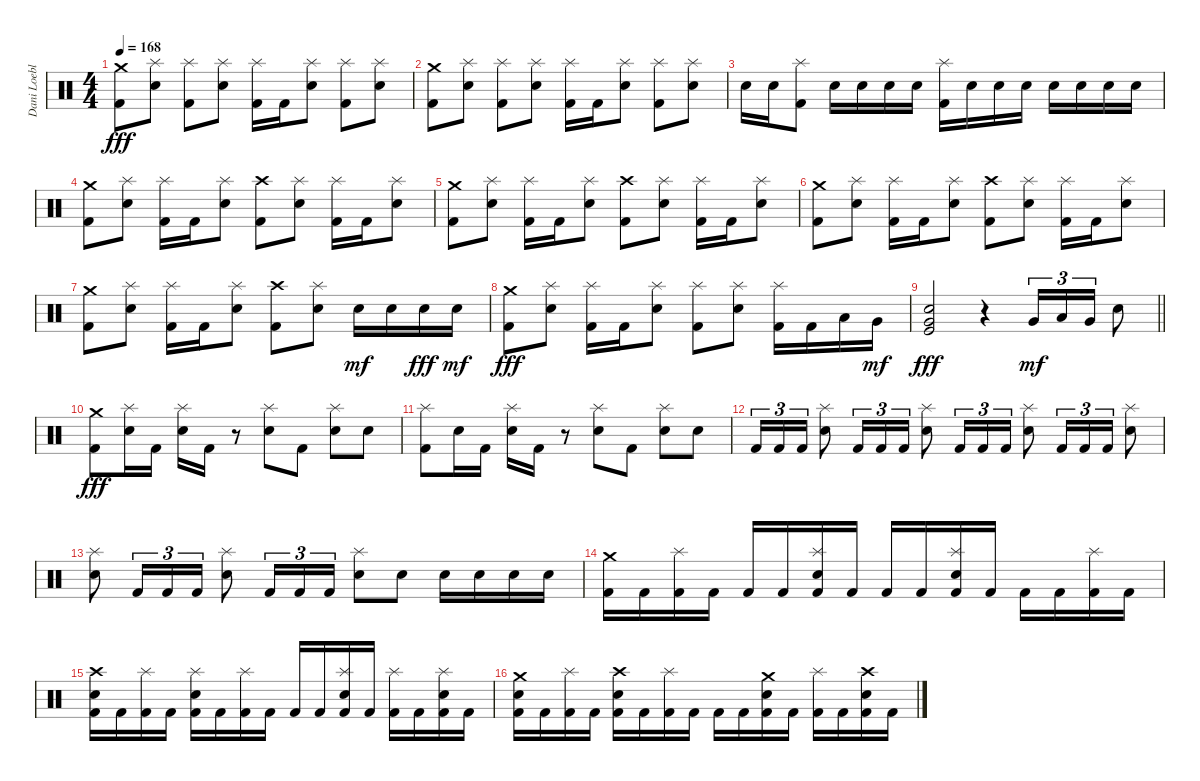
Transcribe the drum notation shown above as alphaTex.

\track ("Dani Loeble" "Dani Loebl") {instrument percussion}
\staff {score}
\articulation defaults
\ts (4 4)
\tempo 168
\clef neutral
\ks c
("Crash medium (hit)" "Kick (hit) 2").8{dy fff} ("Splash (hit)" "Electric Snare (hit)").8 ("Splash (hit)" "Kick (hit) 2").8 ("Splash (hit)" "Electric Snare (hit)").8 ("Splash (hit)" "Kick (hit) 2").16 "Kick (hit) 2".16 ("Splash (hit)" "Electric Snare (hit)").8 ("Splash (hit)" "Kick (hit) 2").8 ("Splash (hit)" "Electric Snare (hit)").8 |
("Crash medium (hit)" "Kick (hit) 2").8 ("Splash (hit)" "Electric Snare (hit)").8 ("Splash (hit)" "Kick (hit) 2").8 ("Splash (hit)" "Electric Snare (hit)").8 ("Splash (hit)" "Kick (hit) 2").16 "Kick (hit) 2".16 ("Splash (hit)" "Electric Snare (hit)").8 ("Splash (hit)" "Kick (hit) 2").8 ("Splash (hit)" "Electric Snare (hit)").8 |
"Electric Snare (hit)".16 "Electric Snare (hit)".16 ("Splash (hit)" "Kick (hit) 2").8 "Electric Snare (hit)".16 "Electric Snare (hit)".16 "Electric Snare (hit)".16 "Electric Snare (hit)".16 ("Splash (hit)" "Kick (hit) 2").16 "Electric Snare (hit)".16 "Electric Snare (hit)".16 "Electric Snare (hit)".16 "Electric Snare (hit)".16 "Electric Snare (hit)".16 "Electric Snare (hit)".16 "Electric Snare (hit)".16 |
("Crash medium (hit)" "Kick (hit) 2").8 ("Splash (hit)" "Electric Snare (hit)").8 ("Splash (hit)" "Kick (hit) 2").16 "Kick (hit) 2".16 ("Splash (hit)" "Electric Snare (hit)").8 ("Crash high (hit)" "Kick (hit) 2").8 ("Splash (hit)" "Electric Snare (hit)").8 ("Splash (hit)" "Kick (hit) 2").16 "Kick (hit) 2".16 ("Splash (hit)" "Electric Snare (hit)").8 |
("Crash medium (hit)" "Kick (hit) 2").8 ("Splash (hit)" "Electric Snare (hit)").8 ("Splash (hit)" "Kick (hit) 2").16 "Kick (hit) 2".16 ("Splash (hit)" "Electric Snare (hit)").8 ("Crash high (hit)" "Kick (hit) 2").8 ("Splash (hit)" "Electric Snare (hit)").8 ("Splash (hit)" "Kick (hit) 2").16 "Kick (hit) 2".16 ("Splash (hit)" "Electric Snare (hit)").8 |
("Crash medium (hit)" "Kick (hit) 2").8 ("Splash (hit)" "Electric Snare (hit)").8 ("Splash (hit)" "Kick (hit) 2").16 "Kick (hit) 2".16 ("Splash (hit)" "Electric Snare (hit)").8 ("Crash high (hit)" "Kick (hit) 2").8 ("Splash (hit)" "Electric Snare (hit)").8 ("Splash (hit)" "Kick (hit) 2").16 "Kick (hit) 2".16 ("Splash (hit)" "Electric Snare (hit)").8 |
("Crash medium (hit)" "Kick (hit) 2").8 ("Splash (hit)" "Electric Snare (hit)").8 ("Splash (hit)" "Kick (hit) 2").16 "Kick (hit) 2".16 ("Splash (hit)" "Electric Snare (hit)").8 ("Crash high (hit)" "Kick (hit) 2").8 ("Splash (hit)" "Electric Snare (hit)").8 "Electric Snare (hit)".16{dy mf} "Electric Snare (hit)".16 "Electric Snare (hit)".16{dy fff} "Electric Snare (hit)".16{dy mf} |
("Crash medium (hit)" "Kick (hit) 2").8{dy fff} ("Splash (hit)" "Electric Snare (hit)").8 ("Splash (hit)" "Kick (hit) 2").16 "Kick (hit) 2".16 ("Splash (hit)" "Electric Snare (hit)").8 ("Splash (hit)" "Kick (hit) 2").8 ("Splash (hit)" "Electric Snare (hit)").8 ("Splash (hit)" "Kick (hit) 2").16 "Kick (hit) 2".16 "Low Tom (hit)".16 "Very Low Tom (hit)".16{dy mf} |
\barLineRight lightlight
("Electric Snare (hit)" "Very Low Tom (hit)" "Kick (hit)").2{dy fff} r.4 "Very Low Tom (hit)".16{tu (3 2) dy mf} "Low Tom (hit)".16{tu (3 2)} "Very Low Tom (hit)".16{tu (3 2)} "Electric Snare (hit)".8 |
\section ("" "")
("Crash medium (hit)" "Kick (hit) 2").8{dy fff} ("Splash (hit)" "Electric Snare (hit)").16 "Kick (hit) 2".16 ("Splash (hit)" "Electric Snare (hit)").16 "Kick (hit) 2".16 r.8 ("Splash (hit)" "Electric Snare (hit)").8 "Kick (hit) 2".8 ("Splash (hit)" "Electric Snare (hit)").8 "Electric Snare (hit)".8 |
("Splash (hit)" "Kick (hit) 2").8 "Electric Snare (hit)".16 "Kick (hit) 2".16 ("Splash (hit)" "Electric Snare (hit)").16 "Kick (hit) 2".16 r.8 ("Splash (hit)" "Electric Snare (hit)").8 "Kick (hit) 2".8 ("Splash (hit)" "Electric Snare (hit)").8 "Electric Snare (hit)".8 |
"Kick (hit) 2".16{tu (3 2)} "Kick (hit) 2".16{tu (3 2)} "Kick (hit) 2".16{tu (3 2)} ("Splash (hit)" "Electric Snare (hit)").8 "Kick (hit) 2".16{tu (3 2)} "Kick (hit) 2".16{tu (3 2)} "Kick (hit) 2".16{tu (3 2)} ("Splash (hit)" "Electric Snare (hit)").8 "Kick (hit) 2".16{tu (3 2)} "Kick (hit) 2".16{tu (3 2)} "Kick (hit) 2".16{tu (3 2)} ("Splash (hit)" "Electric Snare (hit)").8 "Kick (hit) 2".16{tu (3 2)} "Kick (hit) 2".16{tu (3 2)} "Kick (hit) 2".16{tu (3 2)} ("Splash (hit)" "Electric Snare (hit)").8 |
("Splash (hit)" "Electric Snare (hit)").8 "Kick (hit) 2".16{tu (3 2)} "Kick (hit) 2".16{tu (3 2)} "Kick (hit) 2".16{tu (3 2)} ("Splash (hit)" "Electric Snare (hit)").8 "Kick (hit) 2".16{tu (3 2)} "Kick (hit) 2".16{tu (3 2)} "Kick (hit) 2".16{tu (3 2)} ("Splash (hit)" "Electric Snare (hit)").8 "Electric Snare (hit)".8 "Electric Snare (hit)".16 "Electric Snare (hit)".16 "Electric Snare (hit)".16 "Electric Snare (hit)".16 |
("Crash medium (hit)" "Kick (hit) 2").16 "Kick (hit) 2".16 ("Splash (hit)" "Kick (hit) 2").16 "Kick (hit) 2".16 "Kick (hit) 2".16 "Kick (hit) 2".16 ("Splash (hit)" "Electric Snare (hit)" "Kick (hit) 2").16 "Kick (hit) 2".16 "Kick (hit) 2".16 "Kick (hit) 2".16 ("Splash (hit)" "Electric Snare (hit)" "Kick (hit) 2").16 "Kick (hit) 2".16 "Kick (hit) 2".16 "Kick (hit) 2".16 ("Splash (hit)" "Kick (hit) 2").16 "Kick (hit) 2".16 |
("Crash high (hit)" "Electric Snare (hit)" "Kick (hit) 2").16 "Kick (hit) 2".16 ("Splash (hit)" "Kick (hit) 2").16 "Kick (hit) 2".16 ("Splash (hit)" "Electric Snare (hit)" "Kick (hit) 2").16 "Kick (hit) 2".16 ("Splash (hit)" "Kick (hit) 2").16 "Kick (hit) 2".16 "Kick (hit) 2".16 "Kick (hit) 2".16 ("Splash (hit)" "Electric Snare (hit)" "Kick (hit) 2").16 "Kick (hit) 2".16 ("Splash (hit)" "Kick (hit) 2").16 "Kick (hit) 2".16 ("Splash (hit)" "Electric Snare (hit)" "Kick (hit) 2").16 "Kick (hit) 2".16 |
("Crash medium (hit)" "Electric Snare (hit)" "Kick (hit) 2").16 "Kick (hit) 2".16 ("Splash (hit)" "Kick (hit) 2").16 "Kick (hit) 2".16 ("Crash high (hit)" "Electric Snare (hit)" "Kick (hit) 2").16 "Kick (hit) 2".16 ("Splash (hit)" "Kick (hit) 2").16 "Kick (hit) 2".16 "Kick (hit) 2".16 "Kick (hit) 2".16 ("Crash medium (hit)" "Electric Snare (hit)" "Kick (hit) 2").16 "Kick (hit) 2".16 ("Splash (hit)" "Kick (hit) 2").16 "Kick (hit) 2".16 ("Crash high (hit)" "Electric Snare (hit)" "Kick (hit) 2").16 "Kick (hit) 2".16
